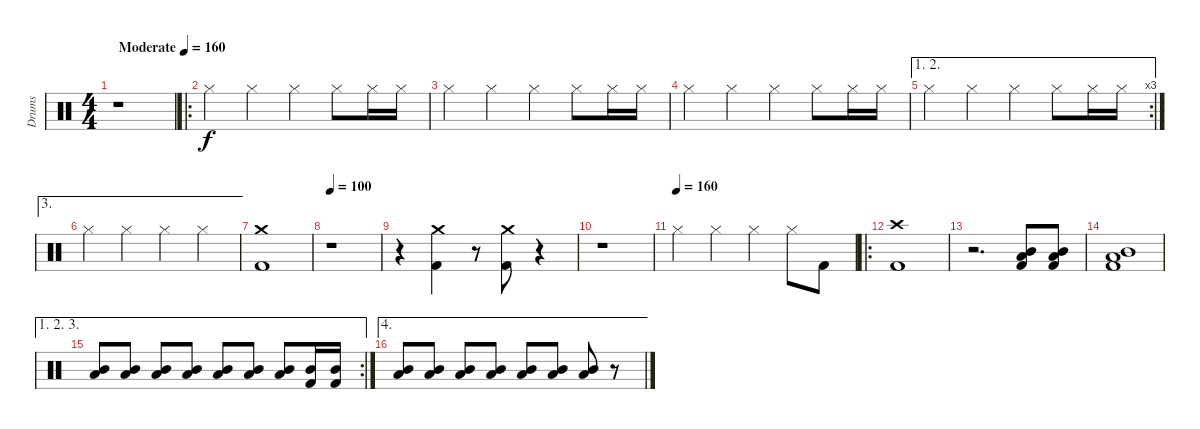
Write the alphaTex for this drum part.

\track ("Drums" "Drums") {instrument percussion}
\staff {score}
\articulation defaults
\ts (4 4)
\tempo (160 "Moderate")
\clef neutral
\ks c
r.1{dy f} |
\ro "Hi-Hat (closed)".4 "Hi-Hat (closed)".4 "Hi-Hat (closed)".4 "Hi-Hat (closed)".8 "Hi-Hat (closed)".16 "Hi-Hat (closed)".16
|
"Hi-Hat (closed)".4 "Hi-Hat (closed)".4 "Hi-Hat (closed)".4 "Hi-Hat (closed)".8 "Hi-Hat (closed)".16 "Hi-Hat (closed)".16 |
"Hi-Hat (closed)".4 "Hi-Hat (closed)".4 "Hi-Hat (closed)".4 "Hi-Hat (closed)".8 "Hi-Hat (closed)".16 "Hi-Hat (closed)".16 |
\ae (1 2)
\rc 3 "Hi-Hat (closed)".4 "Hi-Hat (closed)".4 "Hi-Hat (closed)".4 "Hi-Hat (closed)".8 "Hi-Hat (closed)".16 "Hi-Hat (closed)".16
|
\ae 3 "Hi-Hat (closed)".4 "Hi-Hat (closed)".4 "Hi-Hat (closed)".4 "Hi-Hat (closed)".4
|
("Crash medium (hit)" "Kick (hit) 2").1 |
\tempo 100
r.1 |
r.4 ("Crash medium (hit)" "Kick (hit) 2").4 r.8 ("Crash medium (hit)" "Kick (hit) 2").8 r.4 |
r.1 |
\tempo (160)
"Hi-Hat (closed)".4 "Hi-Hat (closed)".4 "Hi-Hat (closed)".4 "Hi-Hat (closed)".8 "Kick (hit) 2".8 |
\ro
("Crash high (hit)" "Kick (hit) 2").1 |
r.2{d} ("Mid Tom (hit)" "Low Tom (hit)" "Kick (hit) 2").8 ("Mid Tom (hit)" "Low Tom (hit)" "Kick (hit) 2").8 |
("Mid Tom (hit)" "Low Tom (hit)" "Kick (hit) 2").1 |
\ae (1 2 3)
\rc 2
("Mid Tom (hit)" "Low Tom (hit)").8 ("Mid Tom (hit)" "Low Tom (hit)").8 ("Mid Tom (hit)" "Low Tom (hit)").8 ("Mid Tom (hit)" "Low Tom (hit)").8 ("Mid Tom (hit)" "Low Tom (hit)").8 ("Mid Tom (hit)" "Low Tom (hit)").8 ("Mid Tom (hit)" "Low Tom (hit)").8 ("Mid Tom (hit)" "Kick (hit) 2").16 ("Mid Tom (hit)" "Kick (hit) 2").16 |
\ae 4
("Mid Tom (hit)" "Low Tom (hit)").8 ("Mid Tom (hit)" "Low Tom (hit)").8 ("Mid Tom (hit)" "Low Tom (hit)").8 ("Mid Tom (hit)" "Low Tom (hit)").8 ("Mid Tom (hit)" "Low Tom (hit)").8 ("Mid Tom (hit)" "Low Tom (hit)").8 ("Mid Tom (hit)" "Low Tom (hit)").8 r.8
